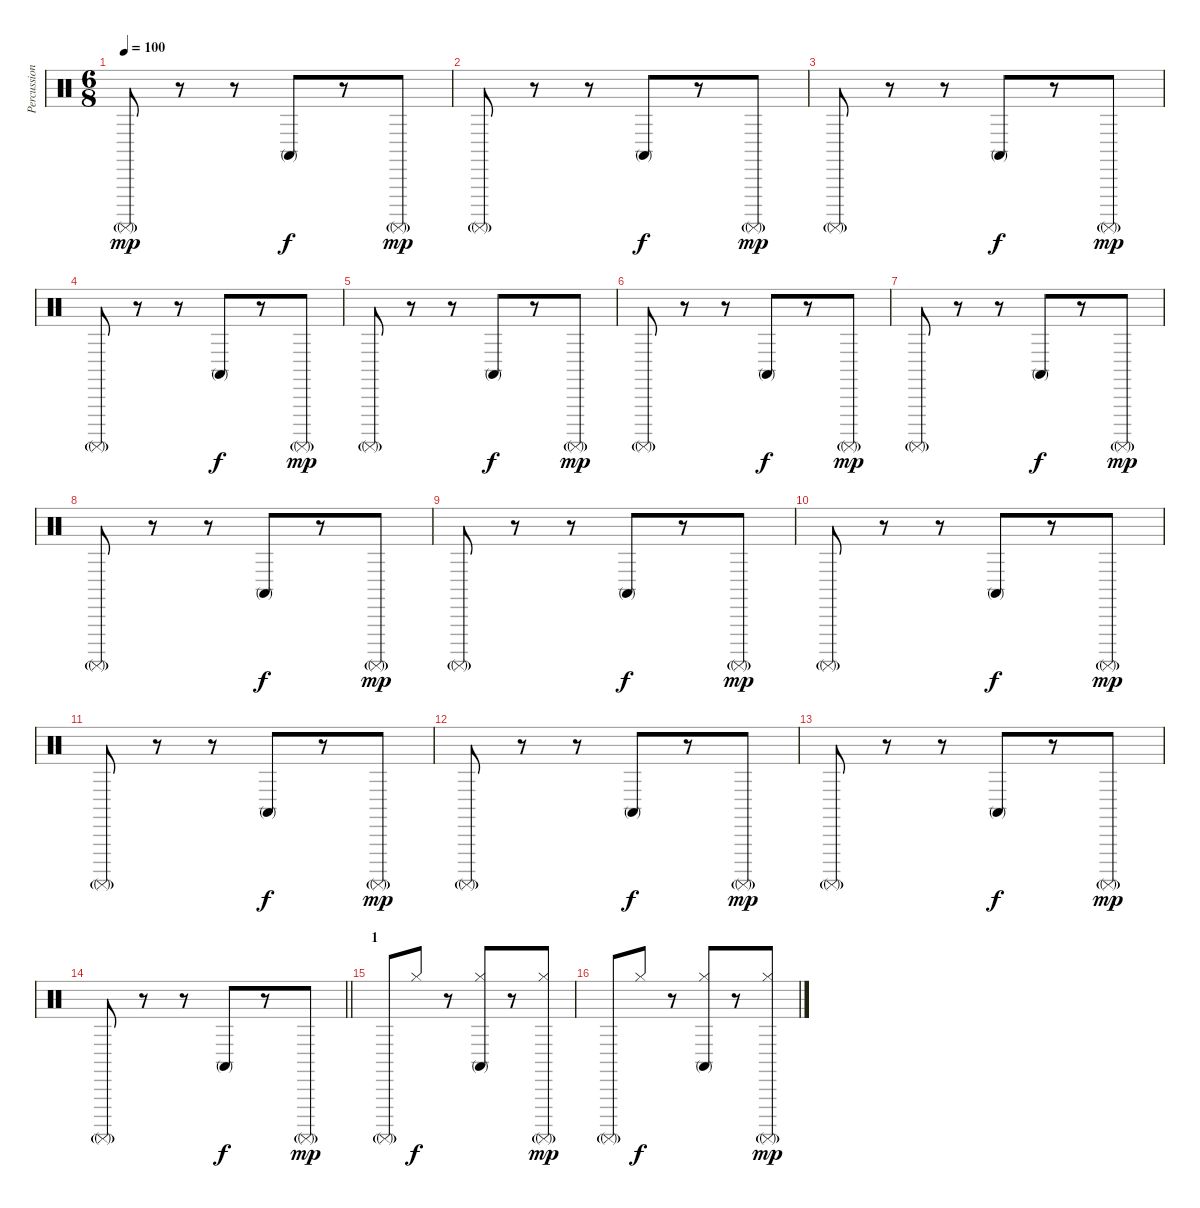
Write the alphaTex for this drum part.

\track ("Percussion" "Percussion") {instrument percussion}
\staff {score}
\articulation defaults
\ts (6 8)
\tempo 100
\clef neutral
\ks c "Surdo (mute)"{g}.8{dy mp}
r.8 r.8 "Conga high (mute)".8{dy f} r.8 "Surdo (mute)"{g}.8{dy mp} |
"Surdo (mute)"{g}.8 r.8 r.8 "Conga high (mute)".8{dy f} r.8 "Surdo (mute)"{g}.8{dy mp} |
"Surdo (mute)"{g}.8 r.8 r.8 "Conga high (mute)".8{dy f} r.8 "Surdo (mute)"{g}.8{dy mp} |
"Surdo (mute)"{g}.8 r.8 r.8 "Conga high (mute)".8{dy f} r.8 "Surdo (mute)"{g}.8{dy mp} |
"Surdo (mute)"{g}.8 r.8 r.8 "Conga high (mute)".8{dy f} r.8 "Surdo (mute)"{g}.8{dy mp} |
"Surdo (mute)"{g}.8 r.8 r.8 "Conga high (mute)".8{dy f} r.8 "Surdo (mute)"{g}.8{dy mp} |
"Surdo (mute)"{g}.8 r.8 r.8 "Conga high (mute)".8{dy f} r.8 "Surdo (mute)"{g}.8{dy mp} |
"Surdo (mute)"{g}.8 r.8 r.8 "Conga high (mute)".8{dy f} r.8 "Surdo (mute)"{g}.8{dy mp} |
"Surdo (mute)"{g}.8 r.8 r.8 "Conga high (mute)".8{dy f} r.8 "Surdo (mute)"{g}.8{dy mp} |
"Surdo (mute)"{g}.8 r.8 r.8 "Conga high (mute)".8{dy f} r.8 "Surdo (mute)"{g}.8{dy mp} |
"Surdo (mute)"{g}.8 r.8 r.8 "Conga high (mute)".8{dy f} r.8 "Surdo (mute)"{g}.8{dy mp} |
"Surdo (mute)"{g}.8 r.8 r.8 "Conga high (mute)".8{dy f} r.8 "Surdo (mute)"{g}.8{dy mp} |
"Surdo (mute)"{g}.8 r.8 r.8 "Conga high (mute)".8{dy f} r.8 "Surdo (mute)"{g}.8{dy mp} |
\barLineRight lightlight "Surdo (mute)"{g}.8
r.8 r.8 "Conga high (mute)".8{dy f} r.8 "Surdo (mute)"{g}.8{dy mp} |
\section ("" "1")
"Surdo (mute)"{g}.8 "Hi-Hat (closed)".8{dy f} r.8 ("Conga high (mute)" "Hi-Hat (closed)").8 r.8 ("Hi-Hat (closed)" "Surdo (mute)"{g}).8{dy mp} |
"Surdo (mute)"{g}.8 "Hi-Hat (closed)".8{dy f} r.8 ("Conga high (mute)" "Hi-Hat (closed)").8 r.8 ("Hi-Hat (closed)" "Surdo (mute)"{g}).8{dy mp}
